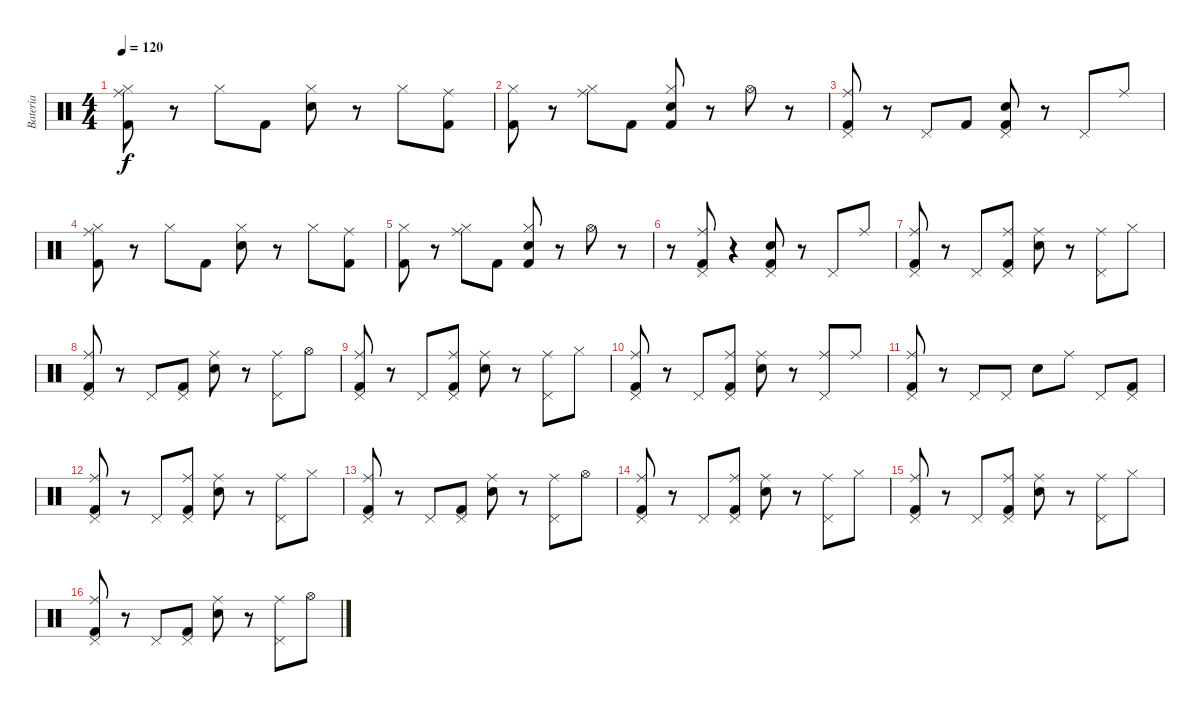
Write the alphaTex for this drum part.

\track ("Bateria" "Bateria") {instrument percussion}
\staff {score}
\articulation defaults
\ts (4 4)
\tempo 120
\clef neutral
\ks c
("Kick (hit) 2" "Hi-Hat (closed)" "Ride (middle)").8{dy f} r.8 "Hi-Hat (closed)".8 "Kick (hit) 2".8 ("Hi-Hat (closed)" "Snare (hit) 2").8 r.8 "Hi-Hat (closed)".8 ("Kick (hit) 2" "Ride (middle)").8 |
("Kick (hit) 2" "Hi-Hat (closed)").8 r.8 ("Hi-Hat (closed)" "Ride (middle)").8 "Kick (hit) 2".8 ("Kick (hit) 2" "Hi-Hat (closed)" "Snare (hit) 2").8 r.8 "Hi-Hat (open)".8 r.8 |
("Kick (hit) 2" "Pedal Hi-Hat (hit)" "Ride (middle)").8 r.8 "Pedal Hi-Hat (hit)".8 "Kick (hit) 2".8 ("Kick (hit) 2" "Pedal Hi-Hat (hit)" "Snare (hit) 2").8 r.8 "Pedal Hi-Hat (hit)".8 "Ride (middle)".8 |
("Kick (hit) 2" "Hi-Hat (closed)" "Ride (middle)").8 r.8 "Hi-Hat (closed)".8 "Kick (hit) 2".8 ("Hi-Hat (closed)" "Snare (hit) 2").8 r.8 "Hi-Hat (closed)".8 ("Kick (hit) 2" "Ride (middle)").8 |
("Kick (hit) 2" "Hi-Hat (closed)").8 r.8 ("Hi-Hat (closed)" "Ride (middle)").8 "Kick (hit) 2".8 ("Kick (hit) 2" "Hi-Hat (closed)" "Snare (hit) 2").8 r.8 "Hi-Hat (open)".8 r.8 |
r.8 ("Kick (hit) 2" "Pedal Hi-Hat (hit)" "Ride (middle)").8 r.4 ("Kick (hit) 2" "Pedal Hi-Hat (hit)" "Snare (hit) 2").8 r.8 "Pedal Hi-Hat (hit)".8 "Ride (middle)".8 |
("Kick (hit) 2" "Pedal Hi-Hat (hit)" "Ride (middle)").8 r.8 "Pedal Hi-Hat (hit)".8 ("Kick (hit) 2" "Pedal Hi-Hat (hit)" "Ride (middle)").8 ("Snare (hit) 2" "Ride (middle)").8 r.8 ("Pedal Hi-Hat (hit)" "Ride (middle)").8 "Hi-Hat (closed)".8 |
("Kick (hit) 2" "Pedal Hi-Hat (hit)" "Ride (middle)").8 r.8 "Pedal Hi-Hat (hit)".8 ("Kick (hit) 2" "Pedal Hi-Hat (hit)").8 ("Snare (hit) 2" "Ride (middle)").8 r.8 ("Pedal Hi-Hat (hit)" "Ride (middle)").8 "Hi-Hat (open)".8 |
("Kick (hit) 2" "Pedal Hi-Hat (hit)" "Ride (middle)").8 r.8 "Pedal Hi-Hat (hit)".8 ("Kick (hit) 2" "Pedal Hi-Hat (hit)" "Ride (middle)").8 ("Snare (hit) 2" "Ride (middle)").8 r.8 ("Pedal Hi-Hat (hit)" "Ride (middle)").8 "Hi-Hat (closed)".8 |
("Kick (hit) 2" "Pedal Hi-Hat (hit)" "Ride (middle)").8 r.8 "Pedal Hi-Hat (hit)".8 ("Kick (hit) 2" "Pedal Hi-Hat (hit)" "Ride (middle)").8 ("Snare (hit) 2" "Ride (middle)").8 r.8 ("Pedal Hi-Hat (hit)" "Ride (middle)").8 "Ride (middle)".8 |
("Kick (hit) 2" "Pedal Hi-Hat (hit)" "Ride (middle)").8 r.8 "Pedal Hi-Hat (hit)".8 "Pedal Hi-Hat (hit)".8 "Snare (hit) 2".8 "Ride (middle)".8 "Pedal Hi-Hat (hit)".8 ("Kick (hit) 2" "Pedal Hi-Hat (hit)").8 |
("Kick (hit) 2" "Pedal Hi-Hat (hit)" "Ride (middle)").8 r.8 "Pedal Hi-Hat (hit)".8 ("Kick (hit) 2" "Pedal Hi-Hat (hit)" "Ride (middle)").8 ("Snare (hit) 2" "Ride (middle)").8 r.8 ("Pedal Hi-Hat (hit)" "Ride (middle)").8 "Hi-Hat (closed)".8 |
("Kick (hit) 2" "Pedal Hi-Hat (hit)" "Ride (middle)").8 r.8 "Pedal Hi-Hat (hit)".8 ("Kick (hit) 2" "Pedal Hi-Hat (hit)").8 ("Snare (hit) 2" "Ride (middle)").8 r.8 ("Pedal Hi-Hat (hit)" "Ride (middle)").8 "Hi-Hat (open)".8 |
("Kick (hit) 2" "Pedal Hi-Hat (hit)" "Ride (middle)").8 r.8 "Pedal Hi-Hat (hit)".8 ("Kick (hit) 2" "Pedal Hi-Hat (hit)" "Ride (middle)").8 ("Snare (hit) 2" "Ride (middle)").8 r.8 ("Pedal Hi-Hat (hit)" "Ride (middle)").8 "Hi-Hat (closed)".8 |
("Kick (hit) 2" "Pedal Hi-Hat (hit)" "Ride (middle)").8 r.8 "Pedal Hi-Hat (hit)".8 ("Kick (hit) 2" "Pedal Hi-Hat (hit)" "Ride (middle)").8 ("Snare (hit) 2" "Ride (middle)").8 r.8 ("Pedal Hi-Hat (hit)" "Ride (middle)").8 "Hi-Hat (closed)".8 |
("Kick (hit) 2" "Pedal Hi-Hat (hit)" "Ride (middle)").8 r.8 "Pedal Hi-Hat (hit)".8 ("Kick (hit) 2" "Pedal Hi-Hat (hit)").8 ("Snare (hit) 2" "Ride (middle)").8 r.8 ("Pedal Hi-Hat (hit)" "Ride (middle)").8 "Hi-Hat (open)".8
